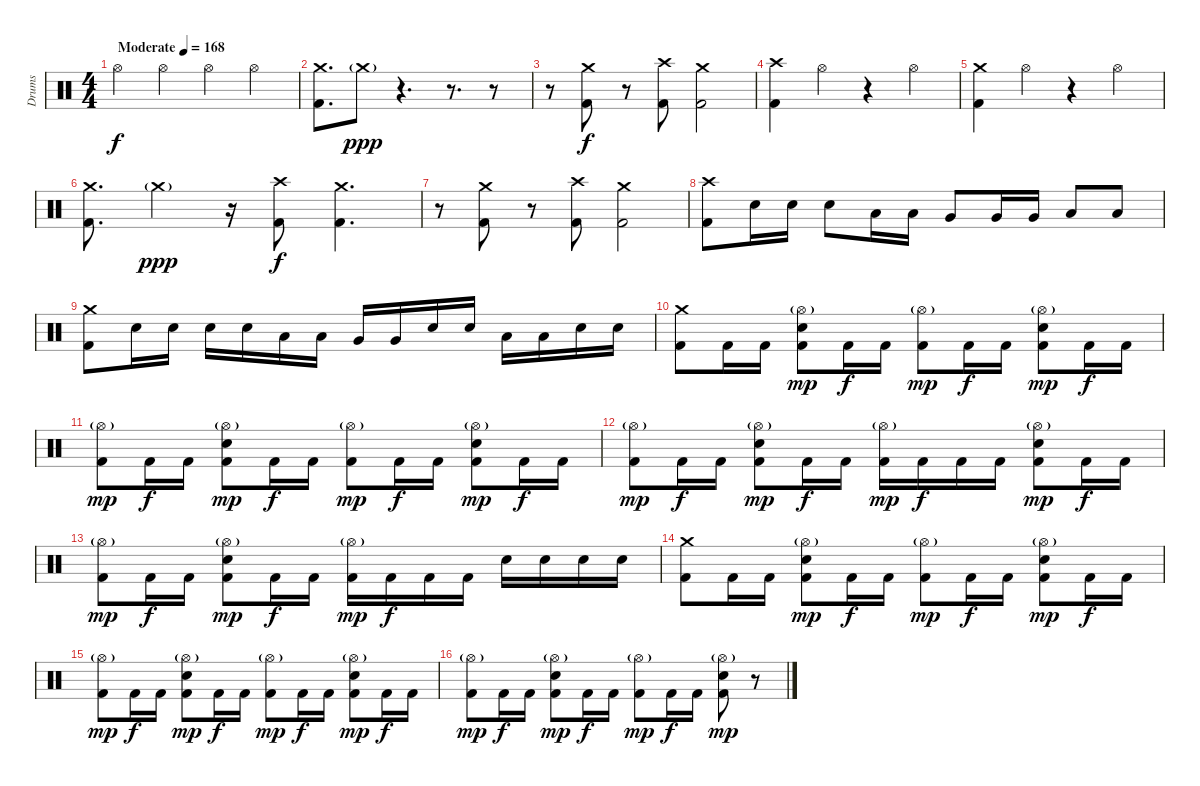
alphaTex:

\track ("Drums" "Drums") {instrument percussion}
\staff {score}
\articulation defaults
\ts (4 4)
\tempo (168 "Moderate")
\clef neutral
\ks c "Hi-Hat (open)".4{dy f} "Hi-Hat (open)".4 "Hi-Hat (open)".4 "Hi-Hat (open)".4
|
("Crash medium (hit)" "Kick (hit) 2").8{d} "Crash medium (hit)"{g}.8{dy ppp} r.4{d} r.8{d} r.8 |
r.8 ("Crash medium (hit)" "Kick (hit) 2").8{dy f} r.8 ("Crash high (hit)" "Kick (hit) 2").8 ("Crash medium (hit)" "Kick (hit) 2").2 |
("Crash high (hit)" "Kick (hit) 2").4 "Hi-Hat (open)".4 r.4 "Hi-Hat (open)".4 |
("Crash medium (hit)" "Kick (hit) 2").4 "Hi-Hat (open)".4 r.4 "Hi-Hat (open)".4 |
("Crash medium (hit)" "Kick (hit) 2").8{d} "Crash medium (hit)"{g}.4{dy ppp} r.16 ("Crash high (hit)" "Kick (hit) 2").8{dy f} ("Crash medium (hit)" "Kick (hit) 2").4{d} |
r.8 ("Crash medium (hit)" "Kick (hit) 2").8 r.8 ("Crash high (hit)" "Kick (hit) 2").8 ("Crash medium (hit)" "Kick (hit) 2").2 |
("Crash high (hit)" "Kick (hit) 2").8 "Snare (hit) 2".16 "Snare (hit) 2".16 "Snare (hit) 2".8 "Low Tom (hit)".16 "Low Tom (hit)".16 "Very Low Tom (hit)".8 "Very Low Tom (hit)".16 "Very Low Tom (hit)".16 "Low Floor Tom (hit)".8 "Low Floor Tom (hit)".8 |
("Crash medium (hit)" "Kick (hit) 2").8 "Snare (hit) 2".16 "Snare (hit) 2".16 "Snare (hit) 2".16 "Snare (hit) 2".16 "Low Tom (hit)".16 "Low Tom (hit)".16 "Very Low Tom (hit)".16 "Very Low Tom (hit)".16 "Snare (hit) 2".16 "Snare (hit) 2".16 "Low Tom (hit)".16 "Low Tom (hit)".16 "Snare (hit) 2".16 "Snare (hit) 2".16 |
("Crash medium (hit)" "Kick (hit) 2").8 "Kick (hit) 2".16 "Kick (hit) 2".16 ("Snare (hit) 2" "Hi-Hat (open)"{g} "Kick (hit) 2").8{dy mp} "Kick (hit) 2".16{dy f} "Kick (hit) 2".16 ("Hi-Hat (open)"{g} "Kick (hit) 2").8{dy mp} "Kick (hit) 2".16{dy f} "Kick (hit) 2".16 ("Snare (hit) 2" "Hi-Hat (open)"{g} "Kick (hit) 2").8{dy mp} "Kick (hit) 2".16{dy f} "Kick (hit) 2".16 |
("Hi-Hat (open)"{g} "Kick (hit) 2").8{dy mp} "Kick (hit) 2".16{dy f} "Kick (hit) 2".16 ("Snare (hit) 2" "Hi-Hat (open)"{g} "Kick (hit) 2").8{dy mp} "Kick (hit) 2".16{dy f} "Kick (hit) 2".16 ("Hi-Hat (open)"{g} "Kick (hit) 2").8{dy mp} "Kick (hit) 2".16{dy f} "Kick (hit) 2".16 ("Snare (hit) 2" "Hi-Hat (open)"{g} "Kick (hit) 2").8{dy mp} "Kick (hit) 2".16{dy f} "Kick (hit) 2".16 |
("Hi-Hat (open)"{g} "Kick (hit) 2").8{dy mp} "Kick (hit) 2".16{dy f} "Kick (hit) 2".16 ("Snare (hit) 2" "Hi-Hat (open)"{g} "Kick (hit) 2").8{dy mp} "Kick (hit) 2".16{dy f} "Kick (hit) 2".16 ("Hi-Hat (open)"{g} "Kick (hit) 2").16{dy mp} "Kick (hit) 2".16{dy f} "Kick (hit) 2".16 "Kick (hit) 2".16 ("Snare (hit) 2" "Hi-Hat (open)"{g} "Kick (hit) 2").8{dy mp} "Kick (hit) 2".16{dy f} "Kick (hit) 2".16 |
("Hi-Hat (open)"{g} "Kick (hit) 2").8{dy mp} "Kick (hit) 2".16{dy f} "Kick (hit) 2".16 ("Snare (hit) 2" "Hi-Hat (open)"{g} "Kick (hit) 2").8{dy mp} "Kick (hit) 2".16{dy f} "Kick (hit) 2".16 ("Hi-Hat (open)"{g} "Kick (hit) 2").16{dy mp} "Kick (hit) 2".16{dy f} "Kick (hit) 2".16 "Kick (hit) 2".16 "Snare (hit) 2".16 "Snare (hit) 2".16 "Snare (hit) 2".16 "Snare (hit) 2".16 |
("Crash medium (hit)" "Kick (hit) 2").8 "Kick (hit) 2".16 "Kick (hit) 2".16 ("Snare (hit) 2" "Hi-Hat (open)"{g} "Kick (hit) 2").8{dy mp} "Kick (hit) 2".16{dy f} "Kick (hit) 2".16 ("Hi-Hat (open)"{g} "Kick (hit) 2").8{dy mp} "Kick (hit) 2".16{dy f} "Kick (hit) 2".16 ("Snare (hit) 2" "Hi-Hat (open)"{g} "Kick (hit) 2").8{dy mp} "Kick (hit) 2".16{dy f} "Kick (hit) 2".16 |
("Hi-Hat (open)"{g} "Kick (hit) 2").8{dy mp} "Kick (hit) 2".16{dy f} "Kick (hit) 2".16 ("Snare (hit) 2" "Hi-Hat (open)"{g} "Kick (hit) 2").8{dy mp} "Kick (hit) 2".16{dy f} "Kick (hit) 2".16 ("Hi-Hat (open)"{g} "Kick (hit) 2").8{dy mp} "Kick (hit) 2".16{dy f} "Kick (hit) 2".16 ("Snare (hit) 2" "Hi-Hat (open)"{g} "Kick (hit) 2").8{dy mp} "Kick (hit) 2".16{dy f} "Kick (hit) 2".16 |
("Hi-Hat (open)"{g} "Kick (hit) 2").8{dy mp} "Kick (hit) 2".16{dy f} "Kick (hit) 2".16 ("Snare (hit) 2" "Hi-Hat (open)"{g} "Kick (hit) 2").8{dy mp} "Kick (hit) 2".16{dy f} "Kick (hit) 2".16 ("Hi-Hat (open)"{g} "Kick (hit) 2").8{dy mp} "Kick (hit) 2".16{dy f} "Kick (hit) 2".16 ("Snare (hit) 2" "Hi-Hat (open)"{g} "Kick (hit) 2").8{dy mp} r.8
